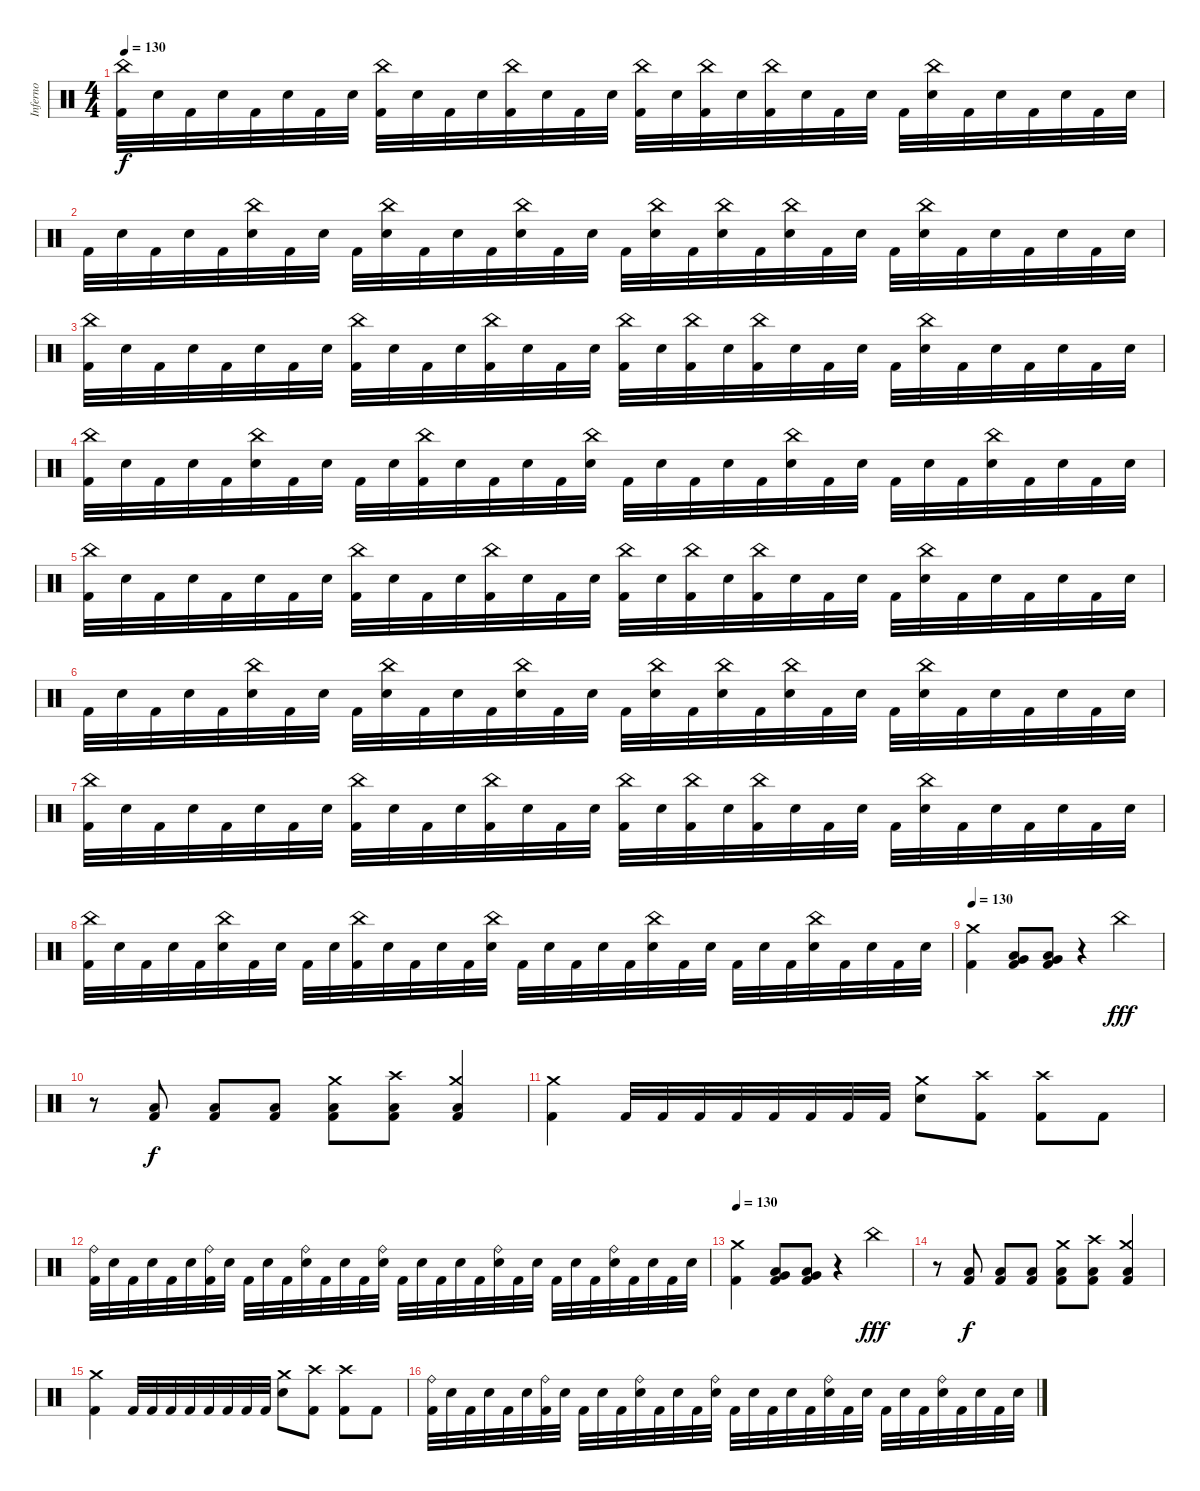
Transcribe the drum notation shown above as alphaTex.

\track ("Inferno" "Inferno") {instrument percussion}
\staff {score}
\articulation defaults
\ts (4 4)
\tempo 130
\clef neutral
\ks c
("China (hit)" "Kick (hit) 2").32{dy f} "Snare (hit) 2".32 "Kick (hit) 2".32 "Snare (hit) 2".32 "Kick (hit) 2".32 "Snare (hit) 2".32 "Kick (hit) 2".32 "Snare (hit) 2".32 ("China (hit)" "Kick (hit) 2").32 "Snare (hit) 2".32 "Kick (hit) 2".32 "Snare (hit) 2".32 ("China (hit)" "Kick (hit) 2").32 "Snare (hit) 2".32 "Kick (hit) 2".32 "Snare (hit) 2".32 ("China (hit)" "Kick (hit) 2").32 "Snare (hit) 2".32 ("China (hit)" "Kick (hit) 2").32 "Snare (hit) 2".32 ("China (hit)" "Kick (hit) 2").32 "Snare (hit) 2".32 "Kick (hit) 2".32 "Snare (hit) 2".32 "Kick (hit) 2".32 ("China (hit)" "Snare (hit) 2").32 "Kick (hit) 2".32 "Snare (hit) 2".32 "Kick (hit) 2".32 "Snare (hit) 2".32 "Kick (hit) 2".32 "Snare (hit) 2".32 |
"Kick (hit) 2".32 "Snare (hit) 2".32 "Kick (hit) 2".32 "Snare (hit) 2".32 "Kick (hit) 2".32 ("China (hit)" "Snare (hit) 2").32 "Kick (hit) 2".32 "Snare (hit) 2".32 "Kick (hit) 2".32 ("China (hit)" "Snare (hit) 2").32 "Kick (hit) 2".32 "Snare (hit) 2".32 "Kick (hit) 2".32 ("China (hit)" "Snare (hit) 2").32 "Kick (hit) 2".32 "Snare (hit) 2".32 "Kick (hit) 2".32 ("China (hit)" "Snare (hit) 2").32 "Kick (hit) 2".32 ("China (hit)" "Snare (hit) 2").32 "Kick (hit) 2".32 ("China (hit)" "Snare (hit) 2").32 "Kick (hit) 2".32 "Snare (hit) 2".32 "Kick (hit) 2".32 ("China (hit)" "Snare (hit) 2").32 "Kick (hit) 2".32 "Snare (hit) 2".32 "Kick (hit) 2".32 "Snare (hit) 2".32 "Kick (hit) 2".32 "Snare (hit) 2".32 |
("China (hit)" "Kick (hit) 2").32 "Snare (hit) 2".32 "Kick (hit) 2".32 "Snare (hit) 2".32 "Kick (hit) 2".32 "Snare (hit) 2".32 "Kick (hit) 2".32 "Snare (hit) 2".32 ("China (hit)" "Kick (hit) 2").32 "Snare (hit) 2".32 "Kick (hit) 2".32 "Snare (hit) 2".32 ("China (hit)" "Kick (hit) 2").32 "Snare (hit) 2".32 "Kick (hit) 2".32 "Snare (hit) 2".32 ("China (hit)" "Kick (hit) 2").32 "Snare (hit) 2".32 ("China (hit)" "Kick (hit) 2").32 "Snare (hit) 2".32 ("China (hit)" "Kick (hit) 2").32 "Snare (hit) 2".32 "Kick (hit) 2".32 "Snare (hit) 2".32 "Kick (hit) 2".32 ("China (hit)" "Snare (hit) 2").32 "Kick (hit) 2".32 "Snare (hit) 2".32 "Kick (hit) 2".32 "Snare (hit) 2".32 "Kick (hit) 2".32 "Snare (hit) 2".32 |
("China (hit)" "Kick (hit) 2").32 "Snare (hit) 2".32 "Kick (hit) 2".32 "Snare (hit) 2".32 "Kick (hit) 2".32 ("China (hit)" "Snare (hit) 2").32 "Kick (hit) 2".32 "Snare (hit) 2".32 "Kick (hit) 2".32 "Snare (hit) 2".32 ("China (hit)" "Kick (hit) 2").32 "Snare (hit) 2".32 "Kick (hit) 2".32 "Snare (hit) 2".32 "Kick (hit) 2".32 ("China (hit)" "Snare (hit) 2").32 "Kick (hit) 2".32 "Snare (hit) 2".32 "Kick (hit) 2".32 "Snare (hit) 2".32 "Kick (hit) 2".32 ("China (hit)" "Snare (hit) 2").32 "Kick (hit) 2".32 "Snare (hit) 2".32 "Kick (hit) 2".32 "Snare (hit) 2".32 "Kick (hit) 2".32 ("China (hit)" "Snare (hit) 2").32 "Kick (hit) 2".32 "Snare (hit) 2".32 "Kick (hit) 2".32 "Snare (hit) 2".32 |
("China (hit)" "Kick (hit) 2").32 "Snare (hit) 2".32 "Kick (hit) 2".32 "Snare (hit) 2".32 "Kick (hit) 2".32 "Snare (hit) 2".32 "Kick (hit) 2".32 "Snare (hit) 2".32 ("China (hit)" "Kick (hit) 2").32 "Snare (hit) 2".32 "Kick (hit) 2".32 "Snare (hit) 2".32 ("China (hit)" "Kick (hit) 2").32 "Snare (hit) 2".32 "Kick (hit) 2".32 "Snare (hit) 2".32 ("China (hit)" "Kick (hit) 2").32 "Snare (hit) 2".32 ("China (hit)" "Kick (hit) 2").32 "Snare (hit) 2".32 ("China (hit)" "Kick (hit) 2").32 "Snare (hit) 2".32 "Kick (hit) 2".32 "Snare (hit) 2".32 "Kick (hit) 2".32 ("China (hit)" "Snare (hit) 2").32 "Kick (hit) 2".32 "Snare (hit) 2".32 "Kick (hit) 2".32 "Snare (hit) 2".32 "Kick (hit) 2".32 "Snare (hit) 2".32 |
"Kick (hit) 2".32 "Snare (hit) 2".32 "Kick (hit) 2".32 "Snare (hit) 2".32 "Kick (hit) 2".32 ("China (hit)" "Snare (hit) 2").32 "Kick (hit) 2".32 "Snare (hit) 2".32 "Kick (hit) 2".32 ("China (hit)" "Snare (hit) 2").32 "Kick (hit) 2".32 "Snare (hit) 2".32 "Kick (hit) 2".32 ("China (hit)" "Snare (hit) 2").32 "Kick (hit) 2".32 "Snare (hit) 2".32 "Kick (hit) 2".32 ("China (hit)" "Snare (hit) 2").32 "Kick (hit) 2".32 ("China (hit)" "Snare (hit) 2").32 "Kick (hit) 2".32 ("China (hit)" "Snare (hit) 2").32 "Kick (hit) 2".32 "Snare (hit) 2".32 "Kick (hit) 2".32 ("China (hit)" "Snare (hit) 2").32 "Kick (hit) 2".32 "Snare (hit) 2".32 "Kick (hit) 2".32 "Snare (hit) 2".32 "Kick (hit) 2".32 "Snare (hit) 2".32 |
("China (hit)" "Kick (hit) 2").32 "Snare (hit) 2".32 "Kick (hit) 2".32 "Snare (hit) 2".32 "Kick (hit) 2".32 "Snare (hit) 2".32 "Kick (hit) 2".32 "Snare (hit) 2".32 ("China (hit)" "Kick (hit) 2").32 "Snare (hit) 2".32 "Kick (hit) 2".32 "Snare (hit) 2".32 ("China (hit)" "Kick (hit) 2").32 "Snare (hit) 2".32 "Kick (hit) 2".32 "Snare (hit) 2".32 ("China (hit)" "Kick (hit) 2").32 "Snare (hit) 2".32 ("China (hit)" "Kick (hit) 2").32 "Snare (hit) 2".32 ("China (hit)" "Kick (hit) 2").32 "Snare (hit) 2".32 "Kick (hit) 2".32 "Snare (hit) 2".32 "Kick (hit) 2".32 ("China (hit)" "Snare (hit) 2").32 "Kick (hit) 2".32 "Snare (hit) 2".32 "Kick (hit) 2".32 "Snare (hit) 2".32 "Kick (hit) 2".32 "Snare (hit) 2".32 |
("China (hit)" "Kick (hit) 2").32 "Snare (hit) 2".32 "Kick (hit) 2".32 "Snare (hit) 2".32 "Kick (hit) 2".32 ("China (hit)" "Snare (hit) 2").32 "Kick (hit) 2".32 "Snare (hit) 2".32 "Kick (hit) 2".32 "Snare (hit) 2".32 ("China (hit)" "Kick (hit) 2").32 "Snare (hit) 2".32 "Kick (hit) 2".32 "Snare (hit) 2".32 "Kick (hit) 2".32 ("China (hit)" "Snare (hit) 2").32 "Kick (hit) 2".32 "Snare (hit) 2".32 "Kick (hit) 2".32 "Snare (hit) 2".32 "Kick (hit) 2".32 ("China (hit)" "Snare (hit) 2").32 "Kick (hit) 2".32 "Snare (hit) 2".32 "Kick (hit) 2".32 "Snare (hit) 2".32 "Kick (hit) 2".32 ("China (hit)" "Snare (hit) 2").32 "Kick (hit) 2".32 "Snare (hit) 2".32 "Kick (hit) 2".32 "Snare (hit) 2".32 |
\tempo 130
("Crash medium (hit)" "Kick (hit) 2").4 ("Very Low Tom (hit)" "Low Floor Tom (hit)" "Kick (hit) 2").8 ("Very Low Tom (hit)" "Low Floor Tom (hit)" "Kick (hit) 2").8 r.4 "China (hit)".4{dy fff} |
r.8 ("Low Floor Tom (hit)" "Kick (hit) 2").8{dy f} ("Low Floor Tom (hit)" "Kick (hit) 2").8 ("Low Floor Tom (hit)" "Kick (hit) 2").8 ("Crash medium (hit)" "Low Floor Tom (hit)" "Kick (hit) 2").8 ("Crash high (hit)" "Low Floor Tom (hit)" "Kick (hit) 2").8 ("Crash medium (hit)" "Low Floor Tom (hit)" "Kick (hit) 2").4 |
("Crash medium (hit)" "Kick (hit) 2").4 "Kick (hit) 2".32 "Kick (hit) 2".32 "Kick (hit) 2".32 "Kick (hit) 2".32 "Kick (hit) 2".32 "Kick (hit) 2".32 "Kick (hit) 2".32 "Kick (hit) 2".32 ("Crash medium (hit)" "Snare (hit) 2").8 ("Crash high (hit)" "Kick (hit) 2").8 ("Crash high (hit)" "Kick (hit) 2").8 "Kick (hit) 2".8 |
("Ride (bell)" "Kick (hit) 2").32 "Snare (hit) 2".32 "Kick (hit) 2".32 "Snare (hit) 2".32 "Kick (hit) 2".32 "Snare (hit) 2".32 ("Ride (bell)" "Kick (hit) 2").32 "Snare (hit) 2".32 "Kick (hit) 2".32 "Snare (hit) 2".32 "Kick (hit) 2".32 ("Ride (bell)" "Snare (hit) 2").32 "Kick (hit) 2".32 "Snare (hit) 2".32 "Kick (hit) 2".32 ("Ride (bell)" "Snare (hit) 2").32 "Kick (hit) 2".32 "Snare (hit) 2".32 "Kick (hit) 2".32 "Snare (hit) 2".32 "Kick (hit) 2".32 ("Ride (bell)" "Snare (hit) 2").32 "Kick (hit) 2".32 "Snare (hit) 2".32 "Kick (hit) 2".32 "Snare (hit) 2".32 "Kick (hit) 2".32 ("Ride (bell)" "Snare (hit) 2").32 "Kick (hit) 2".32 "Snare (hit) 2".32 "Kick (hit) 2".32 "Snare (hit) 2".32 |
\tempo 130
("Crash medium (hit)" "Kick (hit) 2").4 ("Very Low Tom (hit)" "Low Floor Tom (hit)" "Kick (hit) 2").8 ("Very Low Tom (hit)" "Low Floor Tom (hit)" "Kick (hit) 2").8 r.4 "China (hit)".4{dy fff} |
r.8 ("Low Floor Tom (hit)" "Kick (hit) 2").8{dy f} ("Low Floor Tom (hit)" "Kick (hit) 2").8 ("Low Floor Tom (hit)" "Kick (hit) 2").8 ("Crash medium (hit)" "Low Floor Tom (hit)" "Kick (hit) 2").8 ("Crash high (hit)" "Low Floor Tom (hit)" "Kick (hit) 2").8 ("Crash medium (hit)" "Low Floor Tom (hit)" "Kick (hit) 2").4 |
("Crash medium (hit)" "Kick (hit) 2").4 "Kick (hit) 2".32 "Kick (hit) 2".32 "Kick (hit) 2".32 "Kick (hit) 2".32 "Kick (hit) 2".32 "Kick (hit) 2".32 "Kick (hit) 2".32 "Kick (hit) 2".32 ("Crash medium (hit)" "Snare (hit) 2").8 ("Crash high (hit)" "Kick (hit) 2").8 ("Crash high (hit)" "Kick (hit) 2").8 "Kick (hit) 2".8 |
("Ride (bell)" "Kick (hit) 2").32 "Snare (hit) 2".32 "Kick (hit) 2".32 "Snare (hit) 2".32 "Kick (hit) 2".32 "Snare (hit) 2".32 ("Ride (bell)" "Kick (hit) 2").32 "Snare (hit) 2".32 "Kick (hit) 2".32 "Snare (hit) 2".32 "Kick (hit) 2".32 ("Ride (bell)" "Snare (hit) 2").32 "Kick (hit) 2".32 "Snare (hit) 2".32 "Kick (hit) 2".32 ("Ride (bell)" "Snare (hit) 2").32 "Kick (hit) 2".32 "Snare (hit) 2".32 "Kick (hit) 2".32 "Snare (hit) 2".32 "Kick (hit) 2".32 ("Ride (bell)" "Snare (hit) 2").32 "Kick (hit) 2".32 "Snare (hit) 2".32 "Kick (hit) 2".32 "Snare (hit) 2".32 "Kick (hit) 2".32 ("Ride (bell)" "Snare (hit) 2").32 "Kick (hit) 2".32 "Snare (hit) 2".32 "Kick (hit) 2".32 "Snare (hit) 2".32
